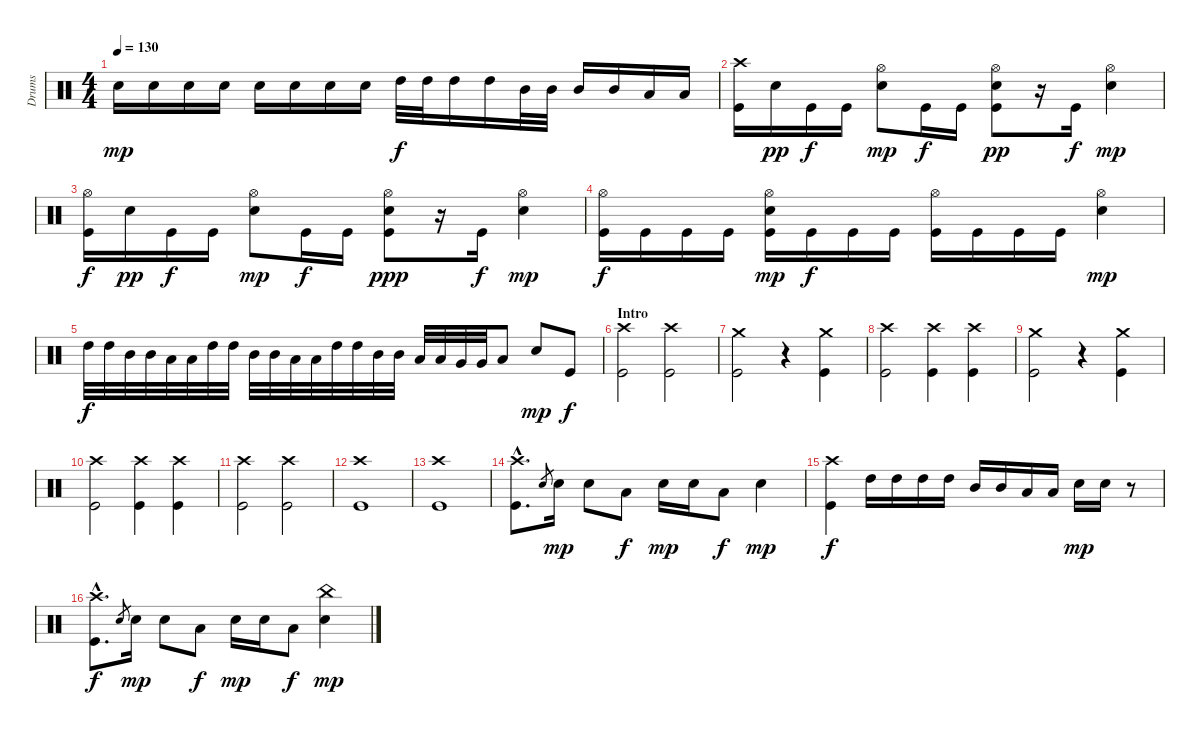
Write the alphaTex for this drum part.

\track ("Drums" "Drums") {instrument percussion}
\staff {score}
\articulation defaults
\ts (4 4)
\tempo 130
\clef neutral
\ks c "Snare (hit) 2".16{dy mp} "Snare (hit) 2".16 "Snare (hit) 2".16 "Snare (hit) 2".16 "Snare (hit) 2".16 "Snare (hit) 2".16 "Snare (hit) 2".16 "Snare (hit) 2".16 "High Tom (hit)".32{dy f} "High Tom (hit)".32 "High Tom (hit)".16 "High Tom (hit)".16 "Mid Tom (hit)".32 "Mid Tom (hit)".32 "Mid Tom (hit)".16 "Mid Tom (hit)".16 "Low Tom (hit)".16 "Low Tom (hit)".16
|
("Crash high (hit)" "Kick (hit)").16 "Snare (hit) 2".16{dy pp} "Kick (hit)".16{dy f} "Kick (hit)".16 ("Hi-Hat (open)" "Snare (hit) 2").8{dy mp} "Kick (hit)".16{dy f} "Kick (hit)".16 ("Hi-Hat (open)" "Snare (hit) 2" "Kick (hit)").8{dy pp} r.16 "Kick (hit)".16{dy f} ("Hi-Hat (open)" "Snare (hit) 2").4{dy mp} |
("Hi-Hat (open)" "Kick (hit)").16{dy f} "Snare (hit) 2".16{dy pp} "Kick (hit)".16{dy f} "Kick (hit)".16 ("Hi-Hat (open)" "Snare (hit) 2").8{dy mp} "Kick (hit)".16{dy f} "Kick (hit)".16 ("Hi-Hat (open)" "Snare (hit) 2" "Kick (hit)").8{dy ppp} r.16 "Kick (hit)".16{dy f} ("Hi-Hat (open)" "Snare (hit) 2").4{dy mp} |
("Hi-Hat (open)" "Kick (hit)").16{dy f} "Kick (hit)".16 "Kick (hit)".16 "Kick (hit)".16 ("Hi-Hat (open)" "Snare (hit) 2" "Kick (hit)").16{dy mp} "Kick (hit)".16{dy f} "Kick (hit)".16 "Kick (hit)".16 ("Hi-Hat (open)" "Kick (hit)").16 "Kick (hit)".16 "Kick (hit)".16 "Kick (hit)".16 ("Hi-Hat (open)" "Snare (hit) 2").4{dy mp} |
"High Tom (hit)".32{dy f} "High Tom (hit)".32 "Mid Tom (hit)".32 "Mid Tom (hit)".32 "Low Tom (hit)".32 "Low Tom (hit)".32 "High Tom (hit)".32 "High Tom (hit)".32 "Mid Tom (hit)".32 "Mid Tom (hit)".32 "Low Tom (hit)".32 "Low Tom (hit)".32 "High Tom (hit)".32 "High Tom (hit)".32 "Mid Tom (hit)".32 "Mid Tom (hit)".32 "Low Tom (hit)".32 "Low Tom (hit)".32 "Very Low Tom (hit)".32 "Very Low Tom (hit)".32 "Low Floor Tom (hit)".8 "Snare (hit) 2".8{dy mp} "Kick (hit)".8{dy f} |
\section ("" "Intro")
("Crash high (hit)" "Kick (hit)").2 ("Crash high (hit)" "Kick (hit)").2 |
("Crash medium (hit)" "Kick (hit)").2 r.4 ("Crash medium (hit)" "Kick (hit)").4 |
("Crash high (hit)" "Kick (hit)").2 ("Crash high (hit)" "Kick (hit)").4 ("Crash high (hit)" "Kick (hit)").4 |
("Crash medium (hit)" "Kick (hit)").2 r.4 ("Crash medium (hit)" "Kick (hit)").4 |
("Crash high (hit)" "Kick (hit)").2 ("Crash high (hit)" "Kick (hit)").4 ("Crash high (hit)" "Kick (hit)").4 |
("Crash high (hit)" "Kick (hit)").2 ("Crash high (hit)" "Kick (hit)").2 |
("Crash high (hit)" "Kick (hit)").1 |
("Crash high (hit)" "Kick (hit)").1 |
("Crash high (hit)"{hac} "Kick (hit)"{hac}).8{d} "Electric Snare (hit)".8{gr} "Snare (hit) 2".16{dy mp} "Snare (hit) 2".8 "Low Tom (hit)".8{dy f} "Snare (hit) 2".16{dy mp} "Snare (hit) 2".16 "Low Tom (hit)".8{dy f} "Snare (hit) 2".4{dy mp} |
("Crash high (hit)" "Kick (hit)").4{dy f} "High Tom (hit)".16 "High Tom (hit)".16 "High Tom (hit)".16 "High Tom (hit)".16 "Mid Tom (hit)".16 "Mid Tom (hit)".16 "Low Tom (hit)".16 "Low Tom (hit)".16 "Snare (hit) 2".16{dy mp} "Snare (hit) 2".16 r.8 |
("Crash high (hit)"{hac} "Kick (hit)"{hac}).8{d dy f} "Electric Snare (hit)".8{gr} "Snare (hit) 2".16{dy mp} "Snare (hit) 2".8 "Low Tom (hit)".8{dy f} "Snare (hit) 2".16{dy mp} "Snare (hit) 2".16 "Low Tom (hit)".8{dy f} ("China (hit)" "Snare (hit) 2").4{dy mp}
